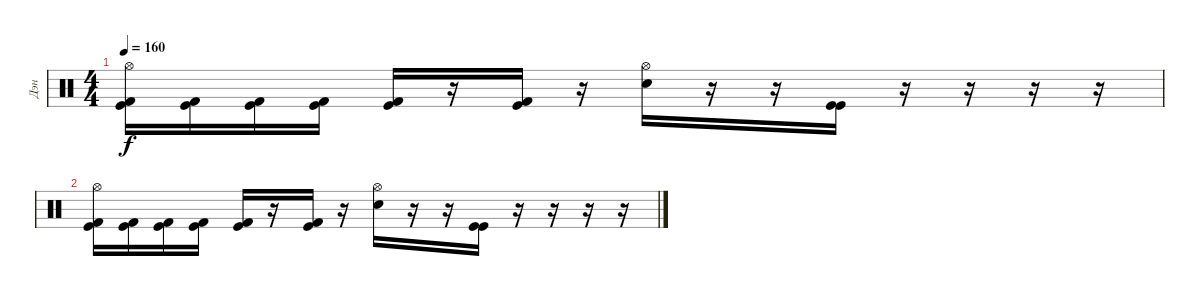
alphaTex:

\track ("Дэн" "Дэн") {instrument percussion}
\staff {score}
\articulation defaults
\ts (4 4)
\tempo 160
\clef neutral
\ks c
("Hi-Hat (open)" "Kick (hit)" "Kick (hit) 2").16{dy f} ("Kick (hit)" "Kick (hit) 2").16 ("Kick (hit)" "Kick (hit) 2").16 ("Kick (hit)" "Kick (hit) 2").16 ("Kick (hit)" "Kick (hit) 2").16 r.16 ("Kick (hit)" "Kick (hit) 2").16 r.16 ("Hi-Hat (open)" "Electric Snare (hit)").16 r.16 r.16 ("Kick (hit)" "Kick (hit)").16 r.16 r.16 r.16 r.16 |
("Hi-Hat (open)" "Kick (hit)" "Kick (hit) 2").16 ("Kick (hit)" "Kick (hit) 2").16 ("Kick (hit)" "Kick (hit) 2").16 ("Kick (hit)" "Kick (hit) 2").16 ("Kick (hit)" "Kick (hit) 2").16 r.16 ("Kick (hit)" "Kick (hit) 2").16 r.16 ("Hi-Hat (open)" "Electric Snare (hit)").16 r.16 r.16 ("Kick (hit)" "Kick (hit)").16 r.16 r.16 r.16 r.16
